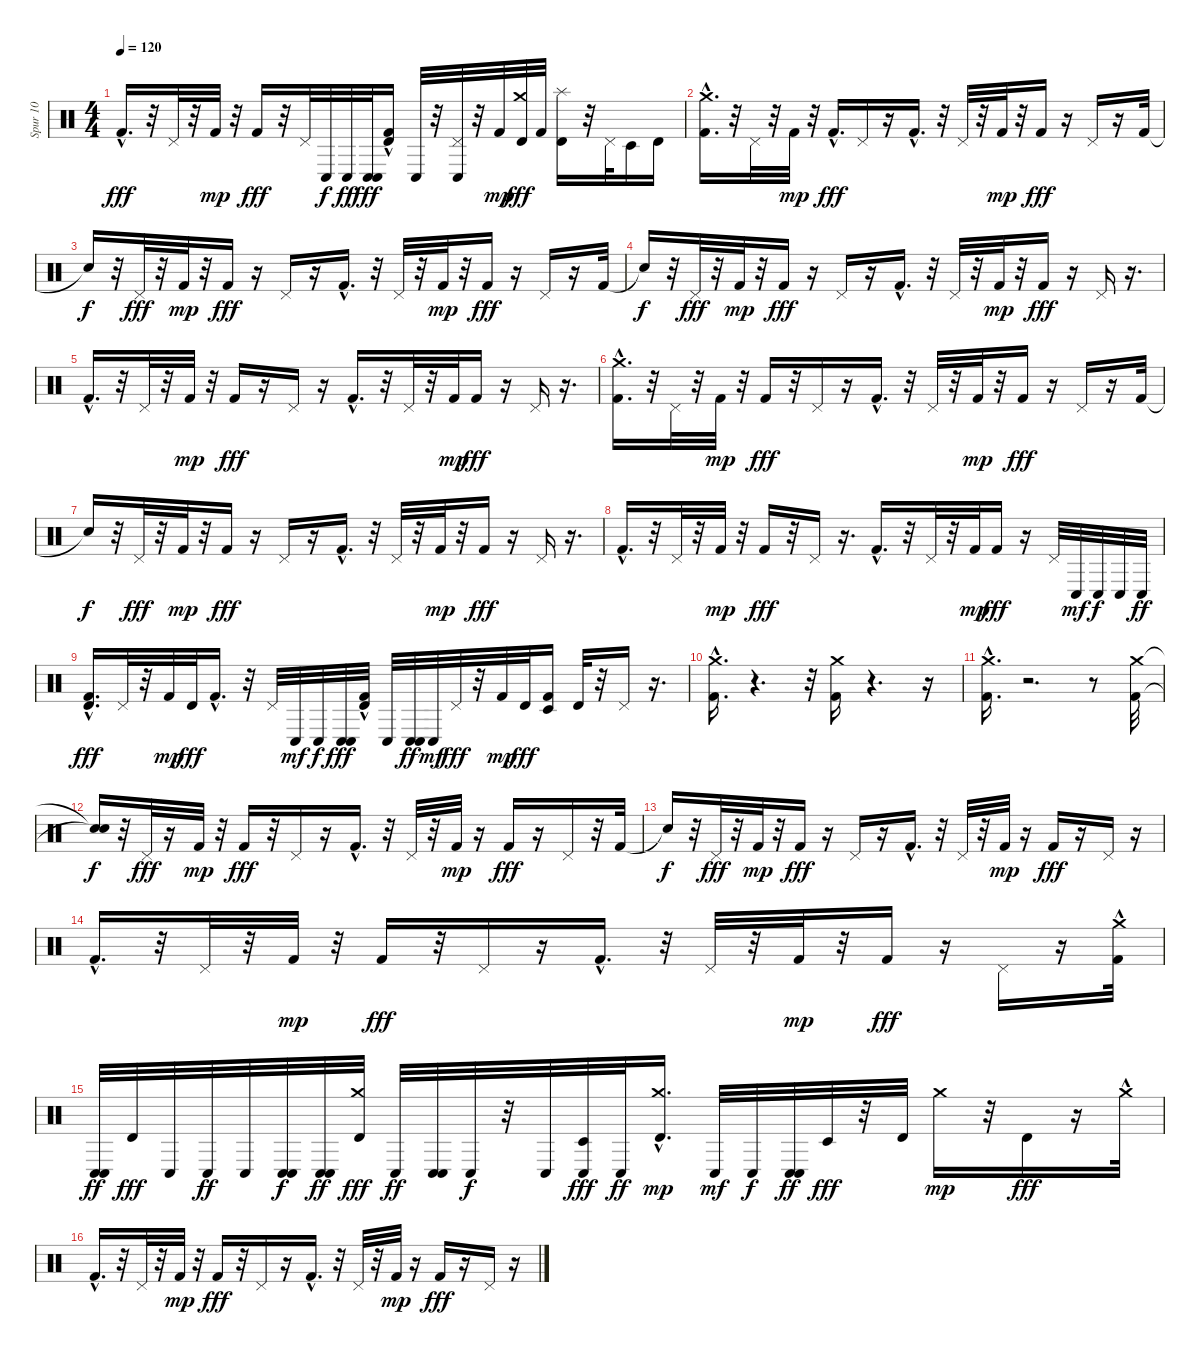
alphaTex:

\track ("Spur 10" "Spur 10") {instrument percussion}
\staff {score}
\articulation defaults
\ts (4 4)
\tempo 120
\clef neutral
\ks c "Kick (hit) 2"{hac}.16{d dy fff}
r.32 "Pedal Hi-Hat (hit)".32 r.32 "Kick (hit) 2".32{dy mp} r.32 "Kick (hit) 2".16{dy fff} r.32 "Pedal Hi-Hat (hit)".32 "Conga low (hit)".32{dy f} "Conga low (hit)".32{dy ff} ("Conga low (hit)" "Conga low (hit)").32{dy fff} ("Timbale high (hit)" "Kick (hit) 2"{hac}).16 "Conga low (hit)".32 r.32 ("Conga low (hit)" "Pedal Hi-Hat (hit)").32 r.32 "Kick (hit) 2".32{dy mp} ("Crash medium (hit)" "Timbale high (hit)").32{dy fff} "Kick (hit) 2".32 ("Splash (hit)" "Timbale high (hit)").16 r.32 "Pedal Hi-Hat (hit)".32 "Timbale low (hit)".16 "Timbale high (hit)".16 |
("Crash medium (hit)"{hac} "Kick (hit) 2"{hac}).16{d} r.32 "Pedal Hi-Hat (hit)".32 r.32 "Kick (hit) 2".32{dy mp} r.32 "Kick (hit) 2"{hac}.16{d dy fff} "Pedal Hi-Hat (hit)".16 r.16 "Kick (hit) 2"{hac}.16{d} r.32 "Pedal Hi-Hat (hit)".32 r.32 "Kick (hit) 2".32{dy mp} r.32 "Kick (hit) 2".16{dy fff} r.16 "Pedal Hi-Hat (hit)".16 r.16 "Kick (hit) 2".32 |
"Snare (hit)"{t}.16{dy f} r.32 "Pedal Hi-Hat (hit)".32{dy fff} r.32 "Kick (hit) 2".32{dy mp} r.32 "Kick (hit) 2".16{dy fff} r.16 "Pedal Hi-Hat (hit)".16 r.16 "Kick (hit) 2"{hac}.16{d} r.32 "Pedal Hi-Hat (hit)".32 r.32 "Kick (hit) 2".32{dy mp} r.32 "Kick (hit) 2".16{dy fff} r.16 "Pedal Hi-Hat (hit)".16 r.16 "Kick (hit) 2".32 |
"Snare (hit)"{t}.16{dy f} r.32 "Pedal Hi-Hat (hit)".32{dy fff} r.32 "Kick (hit) 2".32{dy mp} r.32 "Kick (hit) 2".16{dy fff} r.16 "Pedal Hi-Hat (hit)".16 r.16 "Kick (hit) 2"{hac}.16{d} r.32 "Pedal Hi-Hat (hit)".32 r.32 "Kick (hit) 2".32{dy mp} r.32 "Kick (hit) 2".16{dy fff} r.16 "Pedal Hi-Hat (hit)".16 r.16{d} |
"Kick (hit) 2"{hac}.16{d} r.32 "Pedal Hi-Hat (hit)".32 r.32 "Kick (hit) 2".32{dy mp} r.32 "Kick (hit) 2".16{dy fff} r.16 "Pedal Hi-Hat (hit)".16 r.16 "Kick (hit) 2"{hac}.16{d} r.32 "Pedal Hi-Hat (hit)".32 r.32 "Kick (hit) 2".32{dy mp} "Kick (hit) 2".16{dy fff} r.16 "Pedal Hi-Hat (hit)".16 r.16{d} |
("Crash medium (hit)"{hac} "Kick (hit) 2"{hac}).16{d} r.32 "Pedal Hi-Hat (hit)".32 r.32 "Kick (hit) 2".32{dy mp} r.32 "Kick (hit) 2".16{dy fff} r.32 "Pedal Hi-Hat (hit)".16 r.16 "Kick (hit) 2"{hac}.16{d} r.32 "Pedal Hi-Hat (hit)".32 r.32 "Kick (hit) 2".32{dy mp} r.32 "Kick (hit) 2".16{dy fff} r.16 "Pedal Hi-Hat (hit)".16 r.16 "Kick (hit) 2".32 |
"Snare (hit)"{t}.16{dy f} r.32 "Pedal Hi-Hat (hit)".32{dy fff} r.32 "Kick (hit) 2".32{dy mp} r.32 "Kick (hit) 2".16{dy fff} r.16 "Pedal Hi-Hat (hit)".16 r.16 "Kick (hit) 2"{hac}.16{d} r.32 "Pedal Hi-Hat (hit)".32 r.32 "Kick (hit) 2".32{dy mp} r.32 "Kick (hit) 2".16{dy fff} r.16 "Pedal Hi-Hat (hit)".16 r.16{d} |
"Kick (hit) 2"{hac}.16{d} r.32 "Pedal Hi-Hat (hit)".32 r.32 "Kick (hit) 2".32{dy mp} r.32 "Kick (hit) 2".16{dy fff} r.32 "Pedal Hi-Hat (hit)".16 r.16{d} "Kick (hit) 2"{hac}.16{d} r.32 "Pedal Hi-Hat (hit)".32 r.32 "Kick (hit) 2".32{dy mp} "Kick (hit) 2".16{dy fff} r.16 "Pedal Hi-Hat (hit)".32 "Conga low (hit)".32{dy mf} "Conga low (hit)".32{dy f} "Conga low (hit)".32 "Conga low (hit)".32{dy ff} |
("Timbale high (hit)" "Kick (hit) 2"{hac}).16{d dy fff} "Pedal Hi-Hat (hit)".32 r.32 "Kick (hit) 2".32{dy mp} "Timbale high (hit)".32{dy fff} "Kick (hit) 2"{hac}.16{d} r.32 "Pedal Hi-Hat (hit)".32 "Conga low (hit)".32{dy mf} "Conga low (hit)".32{dy f} ("Conga low (hit)" "Conga low (hit)").32{dy fff} ("Timbale high (hit)" "Kick (hit) 2"{hac}).32 "Conga low (hit)".32 ("Conga low (hit)" "Conga low (hit)").32{dy ff} "Conga low (hit)".32{dy mf} "Pedal Hi-Hat (hit)".32{dy fff} r.32 "Kick (hit) 2".32{dy mp} "Timbale high (hit)".32{dy fff} ("Timbale low (hit)" "Kick (hit) 2").16 "Timbale high (hit)".32 r.32 "Pedal Hi-Hat (hit)".16 r.16{d} |
("Crash medium (hit)"{hac} "Kick (hit) 2"{hac}).16{d} r.4{d} r.32 ("Crash medium (hit)" "Kick (hit) 2").16 r.4{d} r.16 |
("Crash medium (hit)"{hac} "Kick (hit) 2"{hac}).16{d} r.2{d} r.8 ("Crash medium (hit)" "Kick (hit) 2").32 |
("Snare (hit)"{t} "Snare (hit)"{t}).16{dy f} r.32 "Pedal Hi-Hat (hit)".32{dy fff} r.16 "Kick (hit) 2".32{dy mp} r.32 "Kick (hit) 2".16{dy fff} r.32 "Pedal Hi-Hat (hit)".16 r.16 "Kick (hit) 2"{hac}.16{d} r.32 "Pedal Hi-Hat (hit)".32 r.32 "Kick (hit) 2".32{dy mp} r.16 "Kick (hit) 2".16{dy fff} r.16 "Pedal Hi-Hat (hit)".16 r.32 "Kick (hit) 2".32 |
"Snare (hit)"{t}.16{dy f} r.32 "Pedal Hi-Hat (hit)".32{dy fff} r.32 "Kick (hit) 2".32{dy mp} r.32 "Kick (hit) 2".16{dy fff} r.16 "Pedal Hi-Hat (hit)".16 r.16 "Kick (hit) 2"{hac}.16{d} r.32 "Pedal Hi-Hat (hit)".32 r.32 "Kick (hit) 2".32{dy mp} r.16 "Kick (hit) 2".16{dy fff} r.16 "Pedal Hi-Hat (hit)".16 r.16 |
"Kick (hit) 2"{hac}.16{d} r.32 "Pedal Hi-Hat (hit)".32 r.32 "Kick (hit) 2".32{dy mp} r.32 "Kick (hit) 2".16{dy fff} r.32 "Pedal Hi-Hat (hit)".16 r.16 "Kick (hit) 2"{hac}.16{d} r.32 "Pedal Hi-Hat (hit)".32 r.32 "Kick (hit) 2".32{dy mp} r.32 "Kick (hit) 2".16{dy fff} r.16 "Pedal Hi-Hat (hit)".16 r.16 ("Crash medium (hit)" "Kick (hit) 2"{hac}).32 |
("Conga low (hit)" "Conga low (hit)").32{dy ff} "Timbale high (hit)".32{dy fff} "Conga low (hit)".32 "Conga low (hit)".32{dy ff} "Conga low (hit)".32 ("Conga low (hit)" "Conga low (hit)").32{dy f} ("Conga low (hit)" "Conga low (hit)").32{dy ff} ("Crash medium (hit)" "Timbale high (hit)").32{dy fff} "Conga low (hit)".32{dy ff} ("Conga low (hit)" "Conga low (hit)").32 "Conga low (hit)".32{dy f} r.32 "Conga low (hit)".32 ("Conga low (hit)" "Timbale low (hit)").32{dy fff} "Conga low (hit)".32{dy ff} ("Timbale high (hit)"{hac} "Crash medium (hit)").16{d dy mp} "Conga low (hit)".32{dy mf} "Conga low (hit)".32{dy f} ("Conga low (hit)" "Conga low (hit)").32{dy ff} "Timbale low (hit)".32{dy fff} r.32 "Timbale high (hit)".32 "Crash medium (hit)".16{dy mp} r.32 "Timbale high (hit)".16{dy fff} r.16 "Crash medium (hit)"{hac}.32 |
"Kick (hit) 2"{hac}.16{d} r.32 "Pedal Hi-Hat (hit)".32 r.32 "Kick (hit) 2".32{dy mp} r.32 "Kick (hit) 2".16{dy fff} r.32 "Pedal Hi-Hat (hit)".16 r.16 "Kick (hit) 2"{hac}.16{d} r.32 "Pedal Hi-Hat (hit)".32 r.32 "Kick (hit) 2".32{dy mp} r.16 "Kick (hit) 2".16{dy fff} r.16 "Pedal Hi-Hat (hit)".16 r.16
